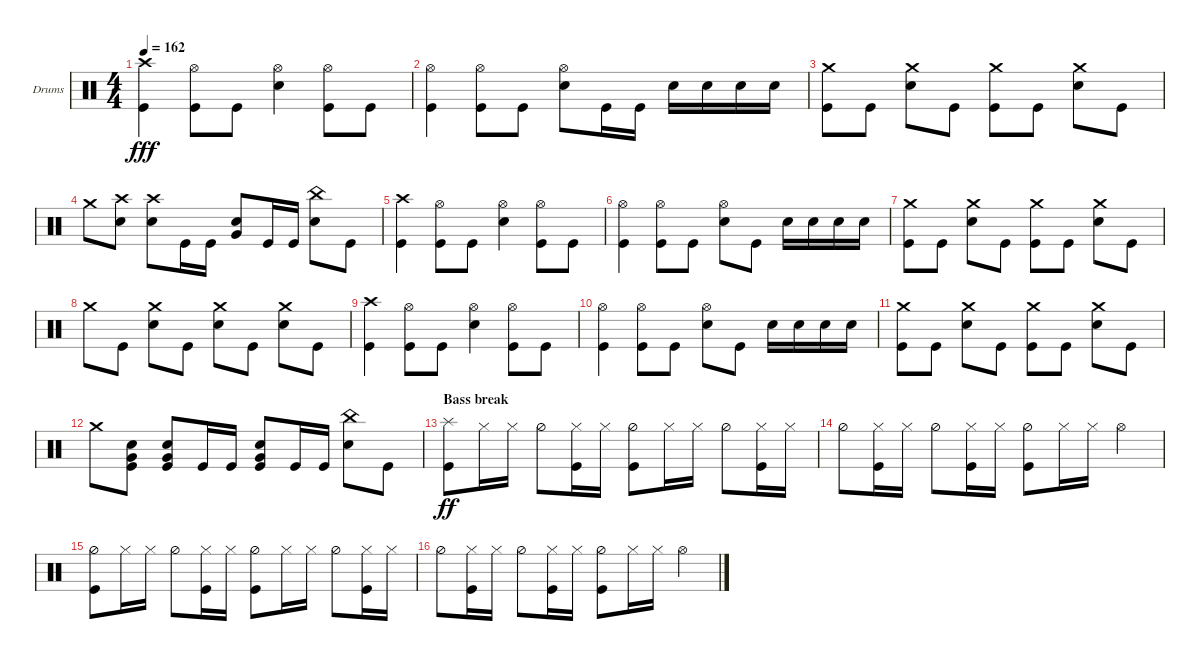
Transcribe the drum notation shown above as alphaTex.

\bracketExtendMode groupsimilarinstruments
\firstSystemTrackNameOrientation horizontal
\otherSystemsTrackNameOrientation horizontal
\track ("Drumkit" "Drums") {instrument percussion}
\staff {score}
\articulation defaults
\ts (4 4)
\tempo 162
\clef neutral
\ks c
("Kick (hit)" "Crash high (hit)").4{dy fff} ("Hi-Hat (open)" "Kick (hit)").8 "Kick (hit)".8 ("Hi-Hat (open)" "Snare (hit) 2").4 ("Hi-Hat (open)" "Kick (hit)").8 "Kick (hit)".8 |
("Hi-Hat (open)" "Kick (hit)").4 ("Hi-Hat (open)" "Kick (hit)").8 "Kick (hit)".8 ("Hi-Hat (open)" "Snare (hit) 2").8 "Kick (hit)".16 "Kick (hit)".16 "Snare (hit) 2".16 "Snare (hit) 2".16 "Snare (hit) 2".16 "Snare (hit) 2".16 |
("Kick (hit)" "Crash medium (hit)").8 "Kick (hit)".8 ("Snare (hit) 2" "Crash medium (hit)").8 "Kick (hit)".8 ("Kick (hit)" "Crash medium (hit)").8 "Kick (hit)".8 ("Snare (hit) 2" "Crash medium (hit)").8 "Kick (hit)".8 |
"Crash medium (hit)".8 ("Snare (hit) 2" "Crash high (hit)").8 ("Snare (hit) 2" "Crash high (hit)").8 "Kick (hit)".16 "Kick (hit)".16 ("Snare (hit) 2" "Very Low Tom (hit)").8 "Kick (hit)".16 "Kick (hit)".16 ("Snare (hit) 2" "China (hit)").8 "Kick (hit)".8 |
("Kick (hit)" "Crash high (hit)").4 ("Hi-Hat (open)" "Kick (hit)").8 "Kick (hit)".8 ("Hi-Hat (open)" "Snare (hit) 2").4 ("Hi-Hat (open)" "Kick (hit)").8 "Kick (hit)".8 |
("Hi-Hat (open)" "Kick (hit)").4 ("Hi-Hat (open)" "Kick (hit)").8 "Kick (hit)".8 ("Hi-Hat (open)" "Snare (hit) 2").8 "Kick (hit)".8 "Snare (hit) 2".16 "Snare (hit) 2".16 "Snare (hit) 2".16 "Snare (hit) 2".16 |
("Kick (hit)" "Crash medium (hit)").8 "Kick (hit)".8 ("Snare (hit) 2" "Crash medium (hit)").8 "Kick (hit)".8 ("Kick (hit)" "Crash medium (hit)").8 "Kick (hit)".8 ("Snare (hit) 2" "Crash medium (hit)").8 "Kick (hit)".8 |
"Crash medium (hit)".8 "Kick (hit)".8 ("Snare (hit) 2" "Crash medium (hit)").8 "Kick (hit)".8 ("Snare (hit) 2" "Crash medium (hit)").8 "Kick (hit)".8 ("Snare (hit) 2" "Crash medium (hit)").8 "Kick (hit)".8 |
("Kick (hit)" "Crash high (hit)").4 ("Hi-Hat (open)" "Kick (hit)").8 "Kick (hit)".8 ("Hi-Hat (open)" "Snare (hit) 2").4 ("Hi-Hat (open)" "Kick (hit)").8 "Kick (hit)".8 |
("Hi-Hat (open)" "Kick (hit)").4 ("Hi-Hat (open)" "Kick (hit)").8 "Kick (hit)".8 ("Hi-Hat (open)" "Snare (hit) 2").8 "Kick (hit)".8 "Snare (hit) 2".16 "Snare (hit) 2".16 "Snare (hit) 2".16 "Snare (hit) 2".16 |
("Kick (hit)" "Crash medium (hit)").8 "Kick (hit)".8 ("Snare (hit) 2" "Crash medium (hit)").8 "Kick (hit)".8 ("Kick (hit)" "Crash medium (hit)").8 "Kick (hit)".8 ("Snare (hit) 2" "Crash medium (hit)").8 "Kick (hit)".8 |
"Crash medium (hit)".8 ("Kick (hit)" "Very Low Tom (hit)" "Snare (hit) 2").8 ("Kick (hit)" "Very Low Tom (hit)" "Snare (hit) 2").8 "Kick (hit)".16 "Kick (hit)".16 ("Snare (hit) 2" "Very Low Tom (hit)" "Kick (hit)").8 "Kick (hit)".16 "Kick (hit)".16 ("Snare (hit) 2" "China (hit)").8 "Kick (hit)".8 |
\section ("" "Bass break")
("Kick (hit)" "Splash (hit)").8{dy ff} "Hi-Hat (closed)".16 "Hi-Hat (closed)".16 "Hi-Hat (half)".8 ("Kick (hit)" "Hi-Hat (closed)").16 "Hi-Hat (closed)".16 ("Hi-Hat (half)" "Kick (hit)").8 "Hi-Hat (closed)".16 "Hi-Hat (closed)".16 "Hi-Hat (half)".8 ("Kick (hit)" "Hi-Hat (closed)").16 "Hi-Hat (closed)".16 |
"Hi-Hat (half)".8 ("Hi-Hat (closed)" "Kick (hit)").16 "Hi-Hat (closed)".16 "Hi-Hat (half)".8 ("Kick (hit)" "Hi-Hat (closed)").16 "Hi-Hat (closed)".16 ("Hi-Hat (half)" "Kick (hit)").8 "Hi-Hat (closed)".16 "Hi-Hat (closed)".16 "Hi-Hat (open)".4 |
("Hi-Hat (half)" "Kick (hit)").8 "Hi-Hat (closed)".16 "Hi-Hat (closed)".16 "Hi-Hat (half)".8 ("Kick (hit)" "Hi-Hat (closed)").16 "Hi-Hat (closed)".16 ("Hi-Hat (half)" "Kick (hit)").8 "Hi-Hat (closed)".16 "Hi-Hat (closed)".16 "Hi-Hat (half)".8 ("Kick (hit)" "Hi-Hat (closed)").16 "Hi-Hat (closed)".16 |
"Hi-Hat (half)".8 ("Hi-Hat (closed)" "Kick (hit)").16 "Hi-Hat (closed)".16 "Hi-Hat (half)".8 ("Kick (hit)" "Hi-Hat (closed)").16 "Hi-Hat (closed)".16 ("Hi-Hat (half)" "Kick (hit)").8 "Hi-Hat (closed)".16 "Hi-Hat (closed)".16 "Hi-Hat (open)".4
